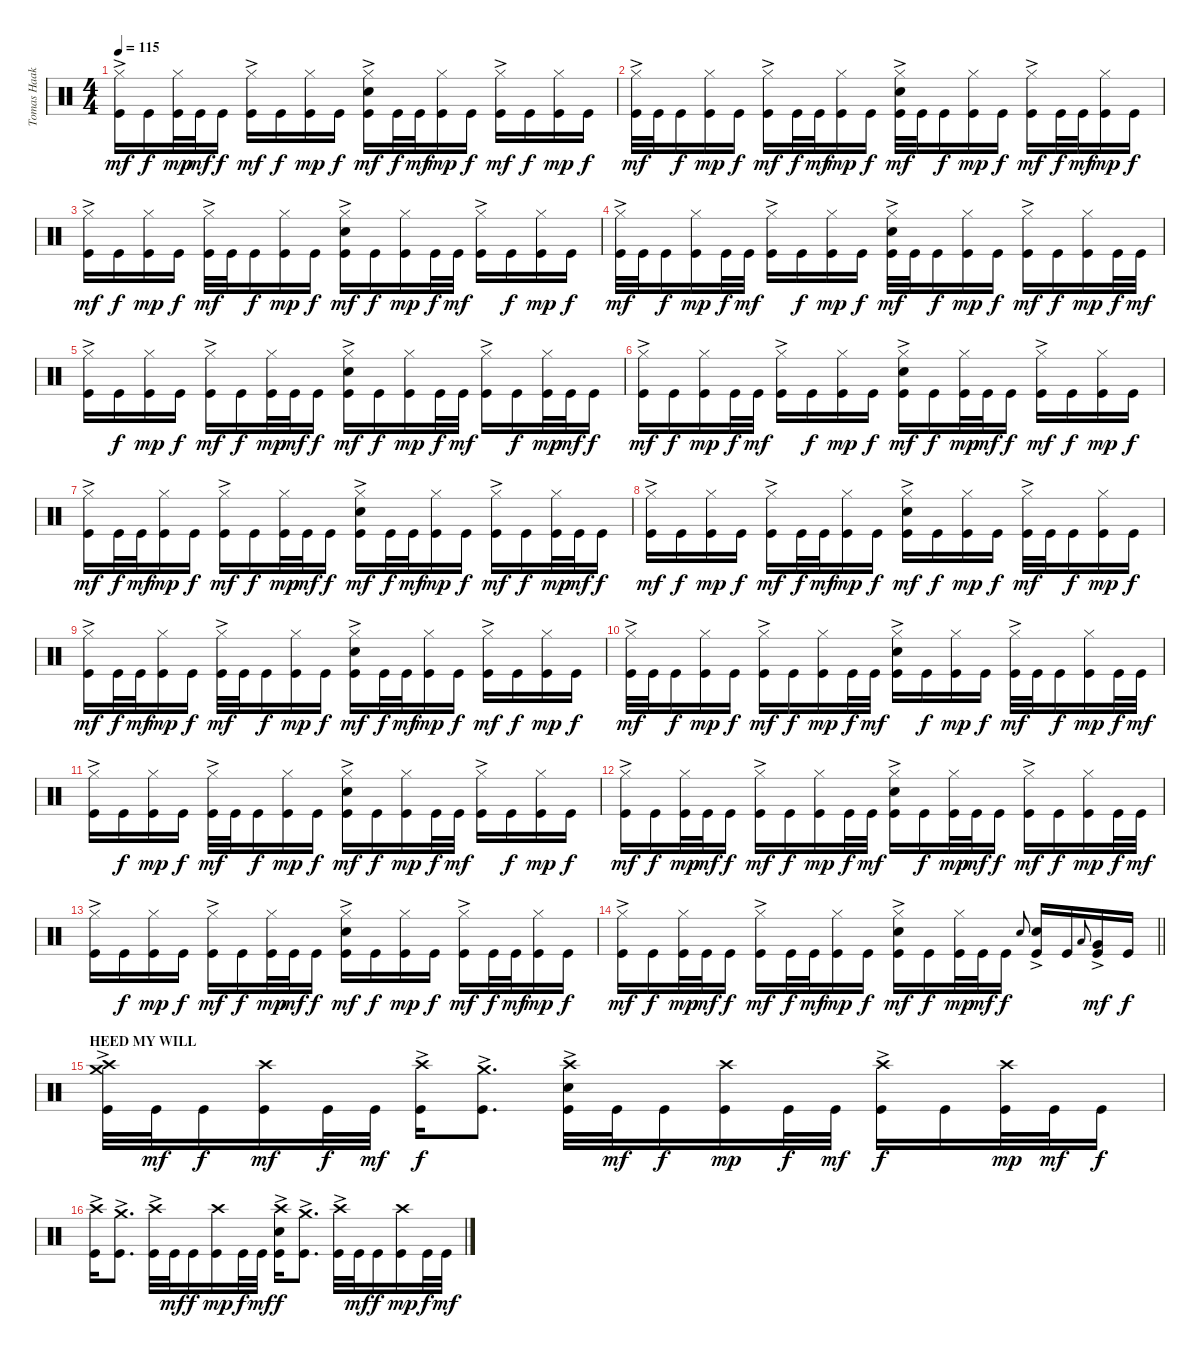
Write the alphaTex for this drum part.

\track ("Tomas Haake (Drums)" "Tomas Haak") {instrument percussion}
\staff {score}
\articulation defaults
\ts (4 4)
\tempo 115
\clef neutral
\ks c
("Hi-Hat (closed)"{ac} "Kick (hit)").16{dy mf} "Kick (hit)".16{dy f} ("Hi-Hat (closed)" "Kick (hit)").32{dy mp} "Kick (hit)".32{dy mf} "Kick (hit)".16{dy f} ("Hi-Hat (closed)"{ac} "Kick (hit)").16{dy mf} "Kick (hit)".16{dy f} ("Hi-Hat (closed)" "Kick (hit)").16{dy mp} "Kick (hit)".16{dy f} ("Hi-Hat (closed)"{ac} "Electric Snare (hit)" "Kick (hit)").16{dy mf} "Kick (hit)".32{dy f} "Kick (hit)".32{dy mf} ("Hi-Hat (closed)" "Kick (hit)").16{dy mp} "Kick (hit)".16{dy f} ("Hi-Hat (closed)"{ac} "Kick (hit)").16{dy mf} "Kick (hit)".16{dy f} ("Hi-Hat (closed)" "Kick (hit)").16{dy mp} "Kick (hit)".16{dy f} |
("Hi-Hat (closed)"{ac} "Kick (hit)").32{dy mf} "Kick (hit)".32 "Kick (hit)".16{dy f} ("Hi-Hat (closed)" "Kick (hit)").16{dy mp} "Kick (hit)".16{dy f} ("Hi-Hat (closed)"{ac} "Kick (hit)").16{dy mf} "Kick (hit)".32{dy f} "Kick (hit)".32{dy mf} ("Hi-Hat (closed)" "Kick (hit)").16{dy mp} "Kick (hit)".16{dy f} ("Hi-Hat (closed)"{ac} "Electric Snare (hit)" "Kick (hit)").32{dy mf} "Kick (hit)".32 "Kick (hit)".16{dy f} ("Hi-Hat (closed)" "Kick (hit)").16{dy mp} "Kick (hit)".16{dy f} ("Hi-Hat (closed)"{ac} "Kick (hit)").16{dy mf} "Kick (hit)".32{dy f} "Kick (hit)".32{dy mf} ("Hi-Hat (closed)" "Kick (hit)").16{dy mp} "Kick (hit)".16{dy f} |
("Hi-Hat (closed)"{ac} "Kick (hit)").16{dy mf} "Kick (hit)".16{dy f} ("Hi-Hat (closed)" "Kick (hit)").16{dy mp} "Kick (hit)".16{dy f} ("Hi-Hat (closed)"{ac} "Kick (hit)").32{dy mf} "Kick (hit)".32 "Kick (hit)".16{dy f} ("Hi-Hat (closed)" "Kick (hit)").16{dy mp} "Kick (hit)".16{dy f} ("Hi-Hat (closed)"{ac} "Electric Snare (hit)" "Kick (hit)").16{dy mf} "Kick (hit)".16{dy f} ("Hi-Hat (closed)" "Kick (hit)").16{dy mp} "Kick (hit)".32{dy f} "Kick (hit)".32{dy mf} ("Hi-Hat (closed)"{ac} "Kick (hit)").16 "Kick (hit)".16{dy f} ("Hi-Hat (closed)" "Kick (hit)").16{dy mp} "Kick (hit)".16{dy f} |
("Hi-Hat (closed)"{ac} "Kick (hit)").32{dy mf} "Kick (hit)".32 "Kick (hit)".16{dy f} ("Hi-Hat (closed)" "Kick (hit)").16{dy mp} "Kick (hit)".32{dy f} "Kick (hit)".32{dy mf} ("Hi-Hat (closed)"{ac} "Kick (hit)").16 "Kick (hit)".16{dy f} ("Hi-Hat (closed)" "Kick (hit)").16{dy mp} "Kick (hit)".16{dy f} ("Hi-Hat (closed)"{ac} "Electric Snare (hit)" "Kick (hit)").32{dy mf} "Kick (hit)".32 "Kick (hit)".16{dy f} ("Hi-Hat (closed)" "Kick (hit)").16{dy mp} "Kick (hit)".16{dy f} ("Hi-Hat (closed)"{ac} "Kick (hit)").16{dy mf} "Kick (hit)".16{dy f} ("Hi-Hat (closed)" "Kick (hit)").16{dy mp} "Kick (hit)".32{dy f} "Kick (hit)".32{dy mf} |
("Hi-Hat (closed)"{ac} "Kick (hit)").16 "Kick (hit)".16{dy f} ("Hi-Hat (closed)" "Kick (hit)").16{dy mp} "Kick (hit)".16{dy f} ("Hi-Hat (closed)"{ac} "Kick (hit)").16{dy mf} "Kick (hit)".16{dy f} ("Hi-Hat (closed)" "Kick (hit)").32{dy mp} "Kick (hit)".32{dy mf} "Kick (hit)".16{dy f} ("Hi-Hat (closed)"{ac} "Electric Snare (hit)" "Kick (hit)").16{dy mf} "Kick (hit)".16{dy f} ("Hi-Hat (closed)" "Kick (hit)").16{dy mp} "Kick (hit)".32{dy f} "Kick (hit)".32{dy mf} ("Hi-Hat (closed)"{ac} "Kick (hit)").16 "Kick (hit)".16{dy f} ("Hi-Hat (closed)" "Kick (hit)").32{dy mp} "Kick (hit)".32{dy mf} "Kick (hit)".16{dy f} |
("Hi-Hat (closed)"{ac} "Kick (hit)").16{dy mf} "Kick (hit)".16{dy f} ("Hi-Hat (closed)" "Kick (hit)").16{dy mp} "Kick (hit)".32{dy f} "Kick (hit)".32{dy mf} ("Hi-Hat (closed)"{ac} "Kick (hit)").16 "Kick (hit)".16{dy f} ("Hi-Hat (closed)" "Kick (hit)").16{dy mp} "Kick (hit)".16{dy f} ("Hi-Hat (closed)"{ac} "Electric Snare (hit)" "Kick (hit)").16{dy mf} "Kick (hit)".16{dy f} ("Hi-Hat (closed)" "Kick (hit)").32{dy mp} "Kick (hit)".32{dy mf} "Kick (hit)".16{dy f} ("Hi-Hat (closed)"{ac} "Kick (hit)").16{dy mf} "Kick (hit)".16{dy f} ("Hi-Hat (closed)" "Kick (hit)").16{dy mp} "Kick (hit)".16{dy f} |
("Hi-Hat (closed)"{ac} "Kick (hit)").16{dy mf} "Kick (hit)".32{dy f} "Kick (hit)".32{dy mf} ("Hi-Hat (closed)" "Kick (hit)").16{dy mp} "Kick (hit)".16{dy f} ("Hi-Hat (closed)"{ac} "Kick (hit)").16{dy mf} "Kick (hit)".16{dy f} ("Hi-Hat (closed)" "Kick (hit)").32{dy mp} "Kick (hit)".32{dy mf} "Kick (hit)".16{dy f} ("Hi-Hat (closed)"{ac} "Electric Snare (hit)" "Kick (hit)").16{dy mf} "Kick (hit)".32{dy f} "Kick (hit)".32{dy mf} ("Hi-Hat (closed)" "Kick (hit)").16{dy mp} "Kick (hit)".16{dy f} ("Hi-Hat (closed)"{ac} "Kick (hit)").16{dy mf} "Kick (hit)".16{dy f} ("Hi-Hat (closed)" "Kick (hit)").32{dy mp} "Kick (hit)".32{dy mf} "Kick (hit)".16{dy f} |
("Hi-Hat (closed)"{ac} "Kick (hit)").16{dy mf} "Kick (hit)".16{dy f} ("Hi-Hat (closed)" "Kick (hit)").16{dy mp} "Kick (hit)".16{dy f} ("Hi-Hat (closed)"{ac} "Kick (hit)").16{dy mf} "Kick (hit)".32{dy f} "Kick (hit)".32{dy mf} ("Hi-Hat (closed)" "Kick (hit)").16{dy mp} "Kick (hit)".16{dy f} ("Hi-Hat (closed)"{ac} "Electric Snare (hit)" "Kick (hit)").16{dy mf} "Kick (hit)".16{dy f} ("Hi-Hat (closed)" "Kick (hit)").16{dy mp} "Kick (hit)".16{dy f} ("Hi-Hat (closed)"{ac} "Kick (hit)").32{dy mf} "Kick (hit)".32 "Kick (hit)".16{dy f} ("Hi-Hat (closed)" "Kick (hit)").16{dy mp} "Kick (hit)".16{dy f} |
("Hi-Hat (closed)"{ac} "Kick (hit)").16{dy mf} "Kick (hit)".32{dy f} "Kick (hit)".32{dy mf} ("Hi-Hat (closed)" "Kick (hit)").16{dy mp} "Kick (hit)".16{dy f} ("Hi-Hat (closed)"{ac} "Kick (hit)").32{dy mf} "Kick (hit)".32 "Kick (hit)".16{dy f} ("Hi-Hat (closed)" "Kick (hit)").16{dy mp} "Kick (hit)".16{dy f} ("Hi-Hat (closed)"{ac} "Electric Snare (hit)" "Kick (hit)").16{dy mf} "Kick (hit)".32{dy f} "Kick (hit)".32{dy mf} ("Hi-Hat (closed)" "Kick (hit)").16{dy mp} "Kick (hit)".16{dy f} ("Hi-Hat (closed)"{ac} "Kick (hit)").16{dy mf} "Kick (hit)".16{dy f} ("Hi-Hat (closed)" "Kick (hit)").16{dy mp} "Kick (hit)".16{dy f} |
("Hi-Hat (closed)"{ac} "Kick (hit)").32{dy mf} "Kick (hit)".32 "Kick (hit)".16{dy f} ("Hi-Hat (closed)" "Kick (hit)").16{dy mp} "Kick (hit)".16{dy f} ("Hi-Hat (closed)"{ac} "Kick (hit)").16{dy mf} "Kick (hit)".16{dy f} ("Hi-Hat (closed)" "Kick (hit)").16{dy mp} "Kick (hit)".32{dy f} "Kick (hit)".32{dy mf} ("Hi-Hat (closed)"{ac} "Electric Snare (hit)" "Kick (hit)").16 "Kick (hit)".16{dy f} ("Hi-Hat (closed)" "Kick (hit)").16{dy mp} "Kick (hit)".16{dy f} ("Hi-Hat (closed)"{ac} "Kick (hit)").32{dy mf} "Kick (hit)".32 "Kick (hit)".16{dy f} ("Hi-Hat (closed)" "Kick (hit)").16{dy mp} "Kick (hit)".32{dy f} "Kick (hit)".32{dy mf} |
("Hi-Hat (closed)"{ac} "Kick (hit)").16 "Kick (hit)".16{dy f} ("Hi-Hat (closed)" "Kick (hit)").16{dy mp} "Kick (hit)".16{dy f} ("Hi-Hat (closed)"{ac} "Kick (hit)").32{dy mf} "Kick (hit)".32 "Kick (hit)".16{dy f} ("Hi-Hat (closed)" "Kick (hit)").16{dy mp} "Kick (hit)".16{dy f} ("Hi-Hat (closed)"{ac} "Electric Snare (hit)" "Kick (hit)").16{dy mf} "Kick (hit)".16{dy f} ("Hi-Hat (closed)" "Kick (hit)").16{dy mp} "Kick (hit)".32{dy f} "Kick (hit)".32{dy mf} ("Hi-Hat (closed)"{ac} "Kick (hit)").16 "Kick (hit)".16{dy f} ("Hi-Hat (closed)" "Kick (hit)").16{dy mp} "Kick (hit)".16{dy f} |
("Hi-Hat (closed)"{ac} "Kick (hit)").16{dy mf} "Kick (hit)".16{dy f} ("Hi-Hat (closed)" "Kick (hit)").32{dy mp} "Kick (hit)".32{dy mf} "Kick (hit)".16{dy f} ("Hi-Hat (closed)"{ac} "Kick (hit)").16{dy mf} "Kick (hit)".16{dy f} ("Hi-Hat (closed)" "Kick (hit)").16{dy mp} "Kick (hit)".32{dy f} "Kick (hit)".32{dy mf} ("Hi-Hat (closed)"{ac} "Electric Snare (hit)" "Kick (hit)").16 "Kick (hit)".16{dy f} ("Hi-Hat (closed)" "Kick (hit)").32{dy mp} "Kick (hit)".32{dy mf} "Kick (hit)".16{dy f} ("Hi-Hat (closed)"{ac} "Kick (hit)").16{dy mf} "Kick (hit)".16{dy f} ("Hi-Hat (closed)" "Kick (hit)").16{dy mp} "Kick (hit)".32{dy f} "Kick (hit)".32{dy mf} |
("Hi-Hat (closed)"{ac} "Kick (hit)").16 "Kick (hit)".16{dy f} ("Hi-Hat (closed)" "Kick (hit)").16{dy mp} "Kick (hit)".16{dy f} ("Hi-Hat (closed)"{ac} "Kick (hit)").16{dy mf} "Kick (hit)".16{dy f} ("Hi-Hat (closed)" "Kick (hit)").32{dy mp} "Kick (hit)".32{dy mf} "Kick (hit)".16{dy f} ("Hi-Hat (closed)"{ac} "Electric Snare (hit)" "Kick (hit)").16{dy mf} "Kick (hit)".16{dy f} ("Hi-Hat (closed)" "Kick (hit)").16{dy mp} "Kick (hit)".16{dy f} ("Hi-Hat (closed)"{ac} "Kick (hit)").16{dy mf} "Kick (hit)".32{dy f} "Kick (hit)".32{dy mf} ("Hi-Hat (closed)" "Kick (hit)").16{dy mp} "Kick (hit)".16{dy f} |
\barLineRight lightlight
("Hi-Hat (closed)"{ac} "Kick (hit)").16{dy mf} "Kick (hit)".16{dy f} ("Hi-Hat (closed)" "Kick (hit)").32{dy mp} "Kick (hit)".32{dy mf} "Kick (hit)".16{dy f} ("Hi-Hat (closed)"{ac} "Kick (hit)").16{dy mf} "Kick (hit)".32{dy f} "Kick (hit)".32{dy mf} ("Hi-Hat (closed)" "Kick (hit)").16{dy mp} "Kick (hit)".16{dy f} ("Hi-Hat (closed)"{ac} "Electric Snare (hit)" "Kick (hit)").16{dy mf} "Kick (hit)".16{dy f} ("Hi-Hat (closed)" "Kick (hit)").32{dy mp} "Kick (hit)".32{dy mf} "Kick (hit)".16{dy f} "Electric Snare (hit)".8{gr onbeat} ("Electric Snare (hit)"{ac} "Kick (hit)").16 "Kick (hit)".16 "Low Floor Tom (hit)".8{gr onbeat} ("Very Low Tom (hit)"{ac} "Kick (hit)").16{dy mf} "Kick (hit)".16{dy f} |
\section ("" "HEED MY WILL")
("Crash high (hit)"{ac} "Crash medium (hit)" "Kick (hit)").32 "Kick (hit)".32{dy mf} "Kick (hit)".16{dy f} ("Crash high (hit)" "Kick (hit)").16{dy mf} "Kick (hit)".32{dy f} "Kick (hit)".32{dy mf} ("Crash high (hit)"{ac} "Kick (hit)").16{dy f} ("Crash medium (hit)"{ac} "Kick (hit)").8{d} ("Crash high (hit)"{ac} "Electric Snare (hit)" "Kick (hit)").32 "Kick (hit)".32{dy mf} "Kick (hit)".16{dy f} ("Crash high (hit)" "Kick (hit)").16{dy mp} "Kick (hit)".32{dy f} "Kick (hit)".32{dy mf} ("Crash high (hit)"{ac} "Kick (hit)").16{dy f} "Kick (hit)".16 ("Crash high (hit)" "Kick (hit)").32{dy mp} "Kick (hit)".32{dy mf} "Kick (hit)".16{dy f} |
("Crash high (hit)"{ac} "Kick (hit)").16 ("Crash medium (hit)"{ac} "Kick (hit)").8{d} ("Crash high (hit)"{ac} "Kick (hit)").32 "Kick (hit)".32{dy mf} "Kick (hit)".16{dy f} ("Crash high (hit)" "Kick (hit)").16{dy mp} "Kick (hit)".32{dy f} "Kick (hit)".32{dy mf} ("Crash high (hit)"{ac} "Electric Snare (hit)" "Kick (hit)").16{dy f} ("Crash medium (hit)"{ac} "Kick (hit)").8{d} ("Crash high (hit)"{ac} "Kick (hit)").32 "Kick (hit)".32{dy mf} "Kick (hit)".16{dy f} ("Crash high (hit)" "Kick (hit)").16{dy mp} "Kick (hit)".32{dy f} "Kick (hit)".32{dy mf}
